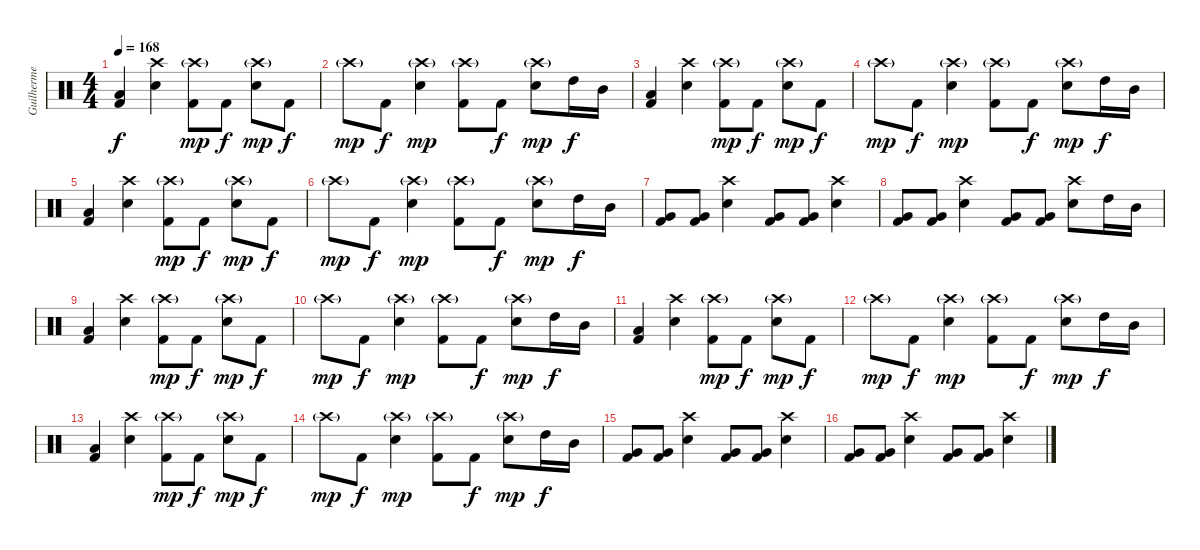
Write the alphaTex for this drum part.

\track ("Guilherme" "Guilherme") {instrument percussion}
\staff {score}
\articulation defaults
\ts (4 4)
\tempo 168
\clef neutral
\ks c
("Low Tom (hit)" "Kick (hit) 2").4{dy f} ("Crash high (hit)" "Snare (hit) 2").4 ("Crash high (hit)"{g} "Kick (hit) 2").8{dy mp} "Kick (hit) 2".8{dy f} ("Crash high (hit)"{g} "Snare (hit) 2").8{dy mp} "Kick (hit) 2".8{dy f} |
"Crash high (hit)"{g}.8{dy mp} "Kick (hit) 2".8{dy f} ("Crash high (hit)"{g} "Snare (hit) 2").4{dy mp} ("Crash high (hit)"{g} "Kick (hit) 2").8 "Kick (hit) 2".8{dy f} ("Crash high (hit)"{g} "Snare (hit) 2").8{dy mp} "High Tom (hit)".16{dy f} "Mid Tom (hit)".16 |
("Low Tom (hit)" "Kick (hit) 2").4 ("Crash high (hit)" "Snare (hit) 2").4 ("Crash high (hit)"{g} "Kick (hit) 2").8{dy mp} "Kick (hit) 2".8{dy f} ("Crash high (hit)"{g} "Snare (hit) 2").8{dy mp} "Kick (hit) 2".8{dy f} |
"Crash high (hit)"{g}.8{dy mp} "Kick (hit) 2".8{dy f} ("Crash high (hit)"{g} "Snare (hit) 2").4{dy mp} ("Crash high (hit)"{g} "Kick (hit) 2").8 "Kick (hit) 2".8{dy f} ("Crash high (hit)"{g} "Snare (hit) 2").8{dy mp} "High Tom (hit)".16{dy f} "Mid Tom (hit)".16 |
("Low Tom (hit)" "Kick (hit) 2").4 ("Crash high (hit)" "Snare (hit) 2").4 ("Crash high (hit)"{g} "Kick (hit) 2").8{dy mp} "Kick (hit) 2".8{dy f} ("Crash high (hit)"{g} "Snare (hit) 2").8{dy mp} "Kick (hit) 2".8{dy f} |
"Crash high (hit)"{g}.8{dy mp} "Kick (hit) 2".8{dy f} ("Crash high (hit)"{g} "Snare (hit) 2").4{dy mp} ("Crash high (hit)"{g} "Kick (hit) 2").8 "Kick (hit) 2".8{dy f} ("Crash high (hit)"{g} "Snare (hit) 2").8{dy mp} "High Tom (hit)".16{dy f} "Mid Tom (hit)".16 |
("Very Low Tom (hit)" "Kick (hit) 2").8 ("Very Low Tom (hit)" "Kick (hit) 2").8 ("Crash high (hit)" "Snare (hit) 2").4 ("Very Low Tom (hit)" "Kick (hit) 2").8 ("Very Low Tom (hit)" "Kick (hit) 2").8 ("Crash high (hit)" "Snare (hit) 2").4 |
("Very Low Tom (hit)" "Kick (hit) 2").8 ("Very Low Tom (hit)" "Kick (hit) 2").8 ("Crash high (hit)" "Snare (hit) 2").4 ("Very Low Tom (hit)" "Kick (hit) 2").8 ("Very Low Tom (hit)" "Kick (hit) 2").8 ("Crash high (hit)" "Snare (hit) 2").8 "High Tom (hit)".16 "Mid Tom (hit)".16 |
("Low Tom (hit)" "Kick (hit) 2").4 ("Crash high (hit)" "Snare (hit) 2").4 ("Crash high (hit)"{g} "Kick (hit) 2").8{dy mp} "Kick (hit) 2".8{dy f} ("Crash high (hit)"{g} "Snare (hit) 2").8{dy mp} "Kick (hit) 2".8{dy f} |
"Crash high (hit)"{g}.8{dy mp} "Kick (hit) 2".8{dy f} ("Crash high (hit)"{g} "Snare (hit) 2").4{dy mp} ("Crash high (hit)"{g} "Kick (hit) 2").8 "Kick (hit) 2".8{dy f} ("Crash high (hit)"{g} "Snare (hit) 2").8{dy mp} "High Tom (hit)".16{dy f} "Mid Tom (hit)".16 |
("Low Tom (hit)" "Kick (hit) 2").4 ("Crash high (hit)" "Snare (hit) 2").4 ("Crash high (hit)"{g} "Kick (hit) 2").8{dy mp} "Kick (hit) 2".8{dy f} ("Crash high (hit)"{g} "Snare (hit) 2").8{dy mp} "Kick (hit) 2".8{dy f} |
"Crash high (hit)"{g}.8{dy mp} "Kick (hit) 2".8{dy f} ("Crash high (hit)"{g} "Snare (hit) 2").4{dy mp} ("Crash high (hit)"{g} "Kick (hit) 2").8 "Kick (hit) 2".8{dy f} ("Crash high (hit)"{g} "Snare (hit) 2").8{dy mp} "High Tom (hit)".16{dy f} "Mid Tom (hit)".16 |
("Low Tom (hit)" "Kick (hit) 2").4 ("Crash high (hit)" "Snare (hit) 2").4 ("Crash high (hit)"{g} "Kick (hit) 2").8{dy mp} "Kick (hit) 2".8{dy f} ("Crash high (hit)"{g} "Snare (hit) 2").8{dy mp} "Kick (hit) 2".8{dy f} |
"Crash high (hit)"{g}.8{dy mp} "Kick (hit) 2".8{dy f} ("Crash high (hit)"{g} "Snare (hit) 2").4{dy mp} ("Crash high (hit)"{g} "Kick (hit) 2").8 "Kick (hit) 2".8{dy f} ("Crash high (hit)"{g} "Snare (hit) 2").8{dy mp} "High Tom (hit)".16{dy f} "Mid Tom (hit)".16 |
("Very Low Tom (hit)" "Kick (hit) 2").8 ("Very Low Tom (hit)" "Kick (hit) 2").8 ("Crash high (hit)" "Snare (hit) 2").4 ("Very Low Tom (hit)" "Kick (hit) 2").8 ("Very Low Tom (hit)" "Kick (hit) 2").8 ("Crash high (hit)" "Snare (hit) 2").4 |
("Very Low Tom (hit)" "Kick (hit) 2").8 ("Very Low Tom (hit)" "Kick (hit) 2").8 ("Crash high (hit)" "Snare (hit) 2").4 ("Very Low Tom (hit)" "Kick (hit) 2").8 ("Very Low Tom (hit)" "Kick (hit) 2").8 ("Crash high (hit)" "Snare (hit) 2").4
